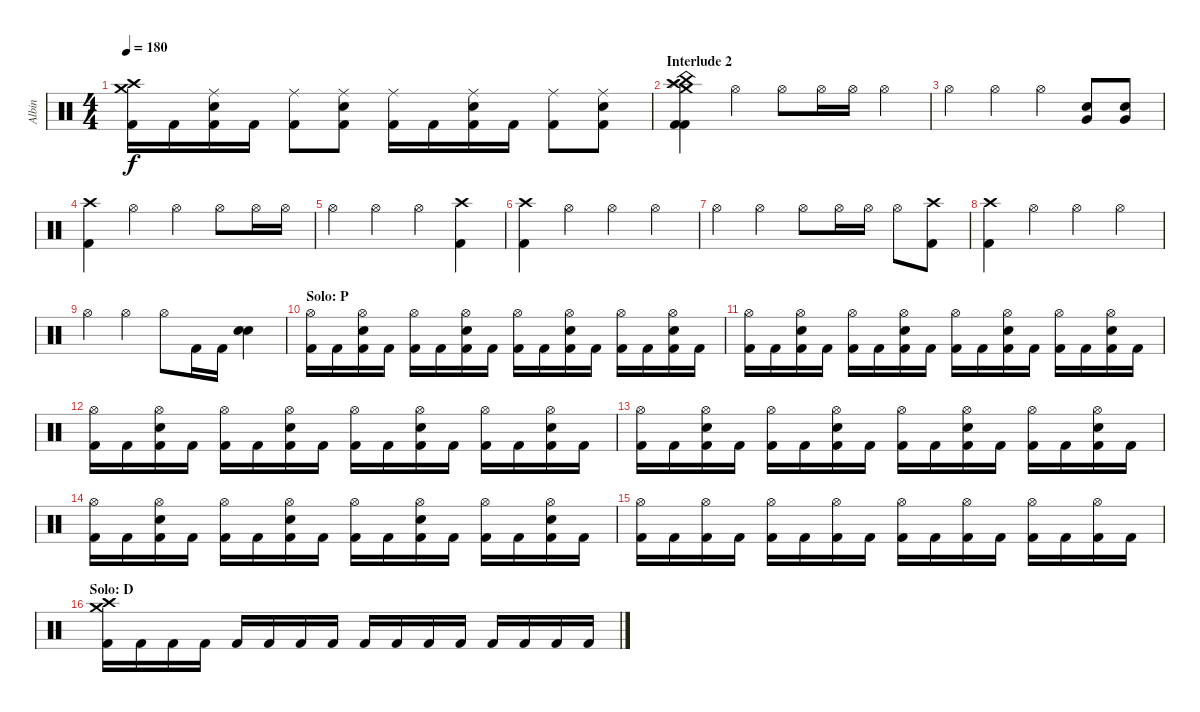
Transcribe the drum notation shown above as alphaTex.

\track ("Albin" "Albin") {instrument percussion}
\staff {score}
\articulation defaults
\ts (4 4)
\tempo 180
\clef neutral
\ks c
("Kick (hit) 2" "Crash high (hit)" "Crash medium (hit)").16{dy f} "Kick (hit) 2".16 ("Kick (hit) 2" "Electric Snare (hit)" "Ride (middle)").16 "Kick (hit) 2".16 ("Kick (hit) 2" "Ride (middle)").8 ("Kick (hit) 2" "Electric Snare (hit)" "Ride (middle)").8 ("Kick (hit) 2" "Ride (middle)").16 "Kick (hit) 2".16 ("Kick (hit) 2" "Electric Snare (hit)" "Ride (middle)").16 "Kick (hit) 2".16 ("Kick (hit) 2" "Ride (middle)").8 ("Kick (hit) 2" "Electric Snare (hit)" "Ride (middle)").8 |
\section ("" "Interlude 2")
("Kick (hit) 2" "Crash high (hit)" "Crash medium (hit)" "Splash (hit)" "China (hit)" "Kick (hit) 2").4 "Hi-Hat (open)".4 "Hi-Hat (open)".8 "Hi-Hat (open)".16 "Hi-Hat (open)".16 "Hi-Hat (open)".4 |
"Hi-Hat (open)".4 "Hi-Hat (open)".4 "Hi-Hat (open)".4 ("Very Low Tom (hit)" "Electric Snare (hit)").8 ("Very Low Tom (hit)" "Electric Snare (hit)").8 |
("Kick (hit) 2" "Crash high (hit)").4 "Hi-Hat (open)".4 "Hi-Hat (open)".4 "Hi-Hat (open)".8 "Hi-Hat (open)".16 "Hi-Hat (open)".16 |
"Hi-Hat (open)".4 "Hi-Hat (open)".4 "Hi-Hat (open)".4 ("Kick (hit) 2" "Crash high (hit)").4 |
("Kick (hit) 2" "Crash high (hit)").4 "Hi-Hat (open)".4 "Hi-Hat (open)".4 "Hi-Hat (open)".4 |
"Hi-Hat (open)".4 "Hi-Hat (open)".4 "Hi-Hat (open)".8 "Hi-Hat (open)".16 "Hi-Hat (open)".16 "Hi-Hat (open)".8 ("Kick (hit) 2" "Crash high (hit)").8 |
("Kick (hit) 2" "Crash high (hit)").4 "Hi-Hat (open)".4 "Hi-Hat (open)".4 "Hi-Hat (open)".4 |
"Hi-Hat (open)".4 "Hi-Hat (open)".4 "Hi-Hat (open)".8 "Kick (hit) 2".16 "Kick (hit) 2".16 ("Electric Snare (hit)" "Electric Snare (hit)").4 |
\section ("" "Solo: P")
("Kick (hit) 2" "Hi-Hat (open)").16 "Kick (hit) 2".16 ("Kick (hit) 2" "Electric Snare (hit)" "Hi-Hat (open)").16 "Kick (hit) 2".16 ("Kick (hit) 2" "Hi-Hat (open)").16 "Kick (hit) 2".16 ("Kick (hit) 2" "Electric Snare (hit)" "Hi-Hat (open)").16 "Kick (hit) 2".16 ("Kick (hit) 2" "Hi-Hat (open)").16 "Kick (hit) 2".16 ("Kick (hit) 2" "Electric Snare (hit)" "Hi-Hat (open)").16 "Kick (hit) 2".16 ("Kick (hit) 2" "Hi-Hat (open)").16 "Kick (hit) 2".16 ("Kick (hit) 2" "Electric Snare (hit)" "Hi-Hat (open)").16 "Kick (hit) 2".16 |
("Kick (hit) 2" "Hi-Hat (open)").16 "Kick (hit) 2".16 ("Kick (hit) 2" "Electric Snare (hit)" "Hi-Hat (open)").16 "Kick (hit) 2".16 ("Kick (hit) 2" "Hi-Hat (open)").16 "Kick (hit) 2".16 ("Kick (hit) 2" "Electric Snare (hit)" "Hi-Hat (open)").16 "Kick (hit) 2".16 ("Kick (hit) 2" "Hi-Hat (open)").16 "Kick (hit) 2".16 ("Kick (hit) 2" "Electric Snare (hit)" "Hi-Hat (open)").16 "Kick (hit) 2".16 ("Kick (hit) 2" "Hi-Hat (open)").16 "Kick (hit) 2".16 ("Kick (hit) 2" "Electric Snare (hit)" "Hi-Hat (open)").16 "Kick (hit) 2".16 |
("Kick (hit) 2" "Hi-Hat (open)").16 "Kick (hit) 2".16 ("Kick (hit) 2" "Electric Snare (hit)" "Hi-Hat (open)").16 "Kick (hit) 2".16 ("Kick (hit) 2" "Hi-Hat (open)").16 "Kick (hit) 2".16 ("Kick (hit) 2" "Electric Snare (hit)" "Hi-Hat (open)").16 "Kick (hit) 2".16 ("Kick (hit) 2" "Hi-Hat (open)").16 "Kick (hit) 2".16 ("Kick (hit) 2" "Electric Snare (hit)" "Hi-Hat (open)").16 "Kick (hit) 2".16 ("Kick (hit) 2" "Hi-Hat (open)").16 "Kick (hit) 2".16 ("Kick (hit) 2" "Electric Snare (hit)" "Hi-Hat (open)").16 "Kick (hit) 2".16 |
("Kick (hit) 2" "Hi-Hat (open)").16 "Kick (hit) 2".16 ("Kick (hit) 2" "Electric Snare (hit)" "Hi-Hat (open)").16 "Kick (hit) 2".16 ("Kick (hit) 2" "Hi-Hat (open)").16 "Kick (hit) 2".16 ("Kick (hit) 2" "Electric Snare (hit)" "Hi-Hat (open)").16 "Kick (hit) 2".16 ("Kick (hit) 2" "Hi-Hat (open)").16 "Kick (hit) 2".16 ("Kick (hit) 2" "Electric Snare (hit)" "Hi-Hat (open)").16 "Kick (hit) 2".16 ("Kick (hit) 2" "Hi-Hat (open)").16 "Kick (hit) 2".16 ("Kick (hit) 2" "Electric Snare (hit)" "Hi-Hat (open)").16 "Kick (hit) 2".16 |
("Kick (hit) 2" "Hi-Hat (open)").16 "Kick (hit) 2".16 ("Kick (hit) 2" "Electric Snare (hit)" "Hi-Hat (open)").16 "Kick (hit) 2".16 ("Kick (hit) 2" "Hi-Hat (open)").16 "Kick (hit) 2".16 ("Kick (hit) 2" "Electric Snare (hit)" "Hi-Hat (open)").16 "Kick (hit) 2".16 ("Kick (hit) 2" "Hi-Hat (open)").16 "Kick (hit) 2".16 ("Kick (hit) 2" "Electric Snare (hit)" "Hi-Hat (open)").16 "Kick (hit) 2".16 ("Kick (hit) 2" "Hi-Hat (open)").16 "Kick (hit) 2".16 ("Kick (hit) 2" "Electric Snare (hit)" "Hi-Hat (open)").16 "Kick (hit) 2".16 |
("Kick (hit) 2" "Hi-Hat (open)").16 "Kick (hit) 2".16 ("Kick (hit) 2" "Hi-Hat (open)").16 "Kick (hit) 2".16 ("Kick (hit) 2" "Hi-Hat (open)").16 "Kick (hit) 2".16 ("Kick (hit) 2" "Hi-Hat (open)").16 "Kick (hit) 2".16 ("Kick (hit) 2" "Hi-Hat (open)").16 "Kick (hit) 2".16 ("Kick (hit) 2" "Hi-Hat (open)").16 "Kick (hit) 2".16 ("Kick (hit) 2" "Hi-Hat (open)").16 "Kick (hit) 2".16 ("Kick (hit) 2" "Hi-Hat (open)").16 "Kick (hit) 2".16 |
\section ("" "Solo: D")
("Kick (hit) 2" "Crash high (hit)" "Crash medium (hit)").16 "Kick (hit) 2".16 "Kick (hit) 2".16 "Kick (hit) 2".16 "Kick (hit) 2".16 "Kick (hit) 2".16 "Kick (hit) 2".16 "Kick (hit) 2".16 "Kick (hit) 2".16 "Kick (hit) 2".16 "Kick (hit) 2".16 "Kick (hit) 2".16 "Kick (hit) 2".16 "Kick (hit) 2".16 "Kick (hit) 2".16 "Kick (hit) 2".16
